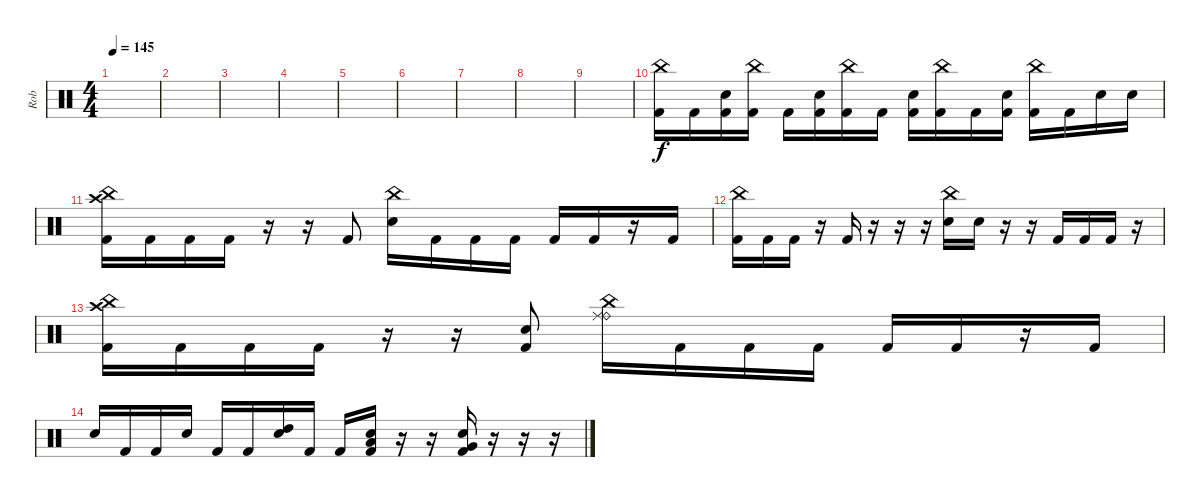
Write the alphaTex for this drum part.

\track ("Rob" "Rob") {instrument percussion}
\staff {score}
\articulation defaults
\ts (4 4)
\tempo 145
\clef neutral
\ks c
|
|
|
|
|
|
|
|
|
("China (hit)" "Kick (hit) 2").16 "Kick (hit) 2".16 ("Electric Snare (hit)" "Kick (hit) 2").16 ("China (hit)" "Kick (hit) 2").16 "Kick (hit) 2".16 ("Electric Snare (hit)" "Kick (hit) 2").16 ("China (hit)" "Kick (hit) 2").16 "Kick (hit) 2".16 ("Electric Snare (hit)" "Kick (hit) 2").16 ("China (hit)" "Kick (hit) 2").16 "Kick (hit) 2".16 ("Electric Snare (hit)" "Kick (hit) 2").16 ("China (hit)" "Kick (hit) 2").16 "Kick (hit) 2".16 "Electric Snare (hit)".16 "Electric Snare (hit)".16 |
("China (hit)" "Crash high (hit)" "Kick (hit) 2").16 "Kick (hit) 2".16 "Kick (hit) 2".16 "Kick (hit) 2".16 r.16 r.16 "Kick (hit) 2".8 ("Electric Snare (hit)" "China (hit)").16 "Kick (hit) 2".16 "Kick (hit) 2".16 "Kick (hit) 2".16 "Kick (hit) 2".16 "Kick (hit) 2".16 r.16 "Kick (hit) 2".16 |
("China (hit)" "Kick (hit) 2").16 "Kick (hit) 2".16 "Kick (hit) 2".16 r.16 "Kick (hit) 2".16 r.16 r.16 r.16 ("China (hit)" "Electric Snare (hit)").16 "Electric Snare (hit)".16 r.16 r.16 "Kick (hit) 2".16 "Kick (hit) 2".16 "Kick (hit) 2".16 r.16 |
("China (hit)" "Crash high (hit)" "Kick (hit) 2").16 "Kick (hit) 2".16 "Kick (hit) 2".16 "Kick (hit) 2".16 r.16 r.16 ("Electric Snare (hit)" "Kick (hit) 2").8 ("Ride (bell)" "Ride (middle)" "China (hit)").16 "Kick (hit) 2".16 "Kick (hit) 2".16 "Kick (hit) 2".16 "Kick (hit) 2".16 "Kick (hit) 2".16 r.16 "Kick (hit) 2".16 |
"Electric Snare (hit)".16 "Kick (hit) 2".16 "Kick (hit) 2".16 "Electric Snare (hit)".16 "Kick (hit) 2".16 "Kick (hit) 2".16 ("High Tom (hit)" "Electric Snare (hit)").16 "Kick (hit) 2".16 "Kick (hit) 2".16 ("Low Tom (hit)" "Electric Snare (hit)" "Kick (hit) 2").16 r.16 r.16 ("Very Low Tom (hit)" "Electric Snare (hit)" "Kick (hit) 2").16 r.16 r.16 r.16
